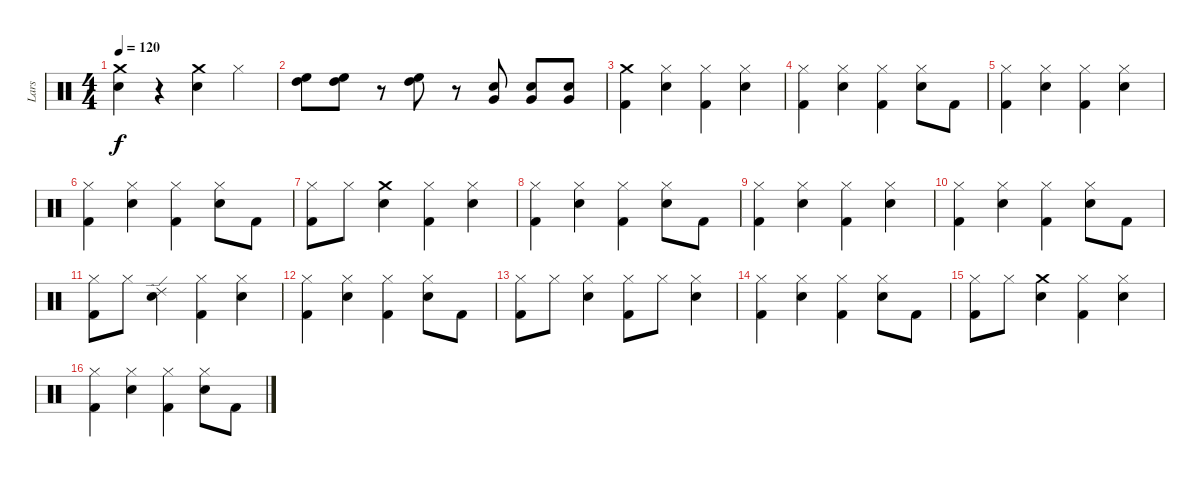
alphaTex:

\track ("Lars" "Lars") {instrument percussion}
\staff {score}
\articulation defaults
\ts (4 4)
\tempo 120
\clef neutral
\ks c
("Snare (hit) 2" "Crash medium (hit)").4{dy f} r.4 ("Crash medium (hit)" "Snare (hit) 2").4 "Hi-Hat (closed)".4 |
("High Floor Tom (hit)" "High Tom (hit)").8 ("High Tom (hit)" "High Floor Tom (hit)").8 r.8 ("High Floor Tom (hit)" "High Tom (hit)").8 r.8 ("Snare (hit) 2" "Very Low Tom (hit)").8 ("Snare (hit) 2" "Very Low Tom (hit)").8 ("Snare (hit) 2" "Very Low Tom (hit)").8 |
("Kick (hit) 2" "Crash medium (hit)").4 ("Hi-Hat (closed)" "Snare (hit) 2").4 ("Hi-Hat (closed)" "Kick (hit) 2").4 ("Snare (hit) 2" "Hi-Hat (closed)").4 |
("Hi-Hat (closed)" "Kick (hit) 2").4 ("Hi-Hat (closed)" "Snare (hit) 2").4 ("Hi-Hat (closed)" "Kick (hit) 2").4 ("Snare (hit) 2" "Hi-Hat (closed)").8 "Kick (hit) 2".8 |
("Kick (hit) 2" "Hi-Hat (closed)").4 ("Snare (hit) 2" "Hi-Hat (closed)").4 ("Kick (hit) 2" "Hi-Hat (closed)").4 ("Snare (hit) 2" "Hi-Hat (closed)").4 |
("Hi-Hat (closed)" "Kick (hit) 2").4 ("Hi-Hat (closed)" "Snare (hit) 2").4 ("Hi-Hat (closed)" "Kick (hit) 2").4 ("Snare (hit) 2" "Hi-Hat (closed)").8 "Kick (hit) 2".8 |
("Hi-Hat (closed)" "Kick (hit) 2").8 "Hi-Hat (closed)".8 ("Snare (hit) 2" "Crash medium (hit)").4 ("Hi-Hat (closed)" "Kick (hit) 2").4 ("Hi-Hat (closed)" "Snare (hit) 2").4 |
("Kick (hit) 2" "Hi-Hat (closed)").4 ("Snare (hit) 2" "Hi-Hat (closed)").4 ("Kick (hit) 2" "Hi-Hat (closed)").4 ("Snare (hit) 2" "Hi-Hat (closed)").8 "Kick (hit) 2".8 |
("Hi-Hat (closed)" "Kick (hit) 2").4 ("Snare (hit) 2" "Hi-Hat (closed)").4 ("Hi-Hat (closed)" "Kick (hit) 2").4 ("Snare (hit) 2" "Hi-Hat (closed)").4 |
("Hi-Hat (closed)" "Kick (hit) 2").4 ("Snare (hit) 2" "Hi-Hat (closed)").4 ("Hi-Hat (closed)" "Kick (hit) 2").4 ("Snare (hit) 2" "Hi-Hat (closed)").8 "Kick (hit) 2".8 |
("Kick (hit) 2" "Hi-Hat (closed)").8 "Hi-Hat (closed)".8 ("Ride (edge) 2" "Snare (hit) 2").4 ("Hi-Hat (closed)" "Kick (hit) 2").4 ("Snare (hit) 2" "Hi-Hat (closed)").4 |
("Hi-Hat (closed)" "Kick (hit) 2").4 ("Hi-Hat (closed)" "Snare (hit) 2").4 ("Hi-Hat (closed)" "Kick (hit) 2").4 ("Snare (hit) 2" "Hi-Hat (closed)").8 "Kick (hit) 2".8 |
("Kick (hit) 2" "Hi-Hat (closed)").8 "Hi-Hat (closed)".8 ("Hi-Hat (closed)" "Snare (hit) 2").4 ("Kick (hit) 2" "Hi-Hat (closed)").8 "Hi-Hat (closed)".8 ("Snare (hit) 2" "Hi-Hat (closed)").4 |
("Kick (hit) 2" "Hi-Hat (closed)").4 ("Snare (hit) 2" "Hi-Hat (closed)").4 ("Hi-Hat (closed)" "Kick (hit) 2").4 ("Hi-Hat (closed)" "Snare (hit) 2").8 "Kick (hit) 2".8 |
("Kick (hit) 2" "Hi-Hat (closed)").8 "Hi-Hat (closed)".8 ("Crash medium (hit)" "Snare (hit) 2").4 ("Kick (hit) 2" "Hi-Hat (closed)").4 ("Snare (hit) 2" "Hi-Hat (closed)").4 |
("Hi-Hat (closed)" "Kick (hit) 2").4 ("Snare (hit) 2" "Hi-Hat (closed)").4 ("Hi-Hat (closed)" "Kick (hit) 2").4 ("Snare (hit) 2" "Hi-Hat (closed)").8 "Kick (hit) 2".8
